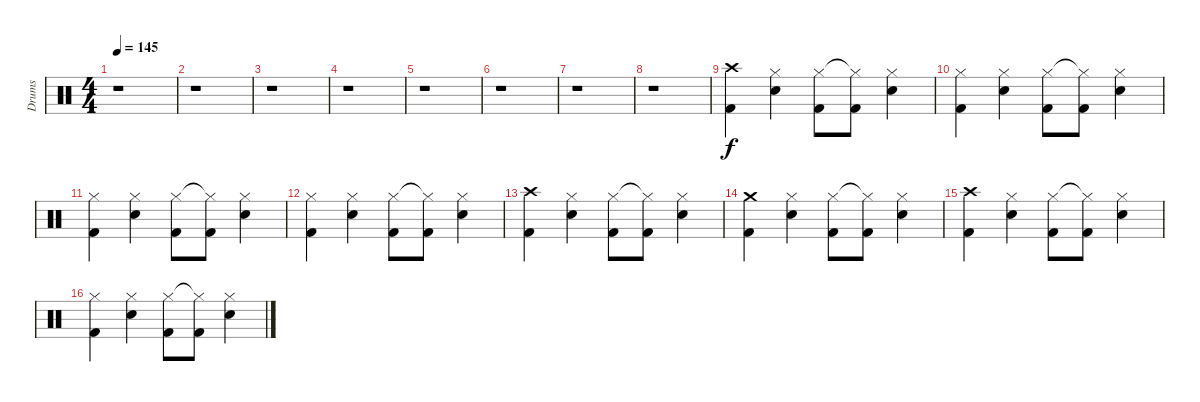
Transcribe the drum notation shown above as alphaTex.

\track ("Drums" "Drums") {instrument percussion}
\staff {score}
\articulation defaults
\ts (4 4)
\tempo 145
\clef neutral
\ks c
r.1{dy f} |
r.1 |
r.1 |
r.1 |
r.1 |
r.1 |
r.1 |
r.1 |
("Crash high (hit)" "Kick (hit) 2").4 ("Hi-Hat (closed)" "Electric Snare (hit)").4 ("Hi-Hat (closed)" "Kick (hit) 2").8 ("Hi-Hat (closed)"{t} "Kick (hit) 2").8 ("Hi-Hat (closed)" "Electric Snare (hit)").4 |
("Hi-Hat (closed)" "Kick (hit) 2").4 ("Hi-Hat (closed)" "Electric Snare (hit)").4 ("Hi-Hat (closed)" "Kick (hit) 2").8 ("Hi-Hat (closed)"{t} "Kick (hit) 2").8 ("Hi-Hat (closed)" "Electric Snare (hit)").4 |
("Hi-Hat (closed)" "Kick (hit) 2").4 ("Hi-Hat (closed)" "Electric Snare (hit)").4 ("Hi-Hat (closed)" "Kick (hit) 2").8 ("Hi-Hat (closed)"{t} "Kick (hit) 2").8 ("Hi-Hat (closed)" "Electric Snare (hit)").4 |
("Hi-Hat (closed)" "Kick (hit) 2").4 ("Hi-Hat (closed)" "Electric Snare (hit)").4 ("Hi-Hat (closed)" "Kick (hit) 2").8 ("Hi-Hat (closed)"{t} "Kick (hit) 2").8 ("Hi-Hat (closed)" "Electric Snare (hit)").4 |
("Crash high (hit)" "Kick (hit) 2").4 ("Hi-Hat (closed)" "Electric Snare (hit)").4 ("Hi-Hat (closed)" "Kick (hit) 2").8 ("Hi-Hat (closed)"{t} "Kick (hit) 2").8 ("Hi-Hat (closed)" "Electric Snare (hit)").4 |
("Crash medium (hit)" "Kick (hit) 2").4 ("Hi-Hat (closed)" "Electric Snare (hit)").4 ("Hi-Hat (closed)" "Kick (hit) 2").8 ("Hi-Hat (closed)"{t} "Kick (hit) 2").8 ("Hi-Hat (closed)" "Electric Snare (hit)").4 |
("Crash high (hit)" "Kick (hit) 2").4 ("Hi-Hat (closed)" "Electric Snare (hit)").4 ("Hi-Hat (closed)" "Kick (hit) 2").8 ("Hi-Hat (closed)"{t} "Kick (hit) 2").8 ("Hi-Hat (closed)" "Electric Snare (hit)").4 |
("Hi-Hat (closed)" "Kick (hit) 2").4 ("Hi-Hat (closed)" "Electric Snare (hit)").4 ("Hi-Hat (closed)" "Kick (hit) 2").8 ("Hi-Hat (closed)"{t} "Kick (hit) 2").8 ("Hi-Hat (closed)" "Electric Snare (hit)").4
